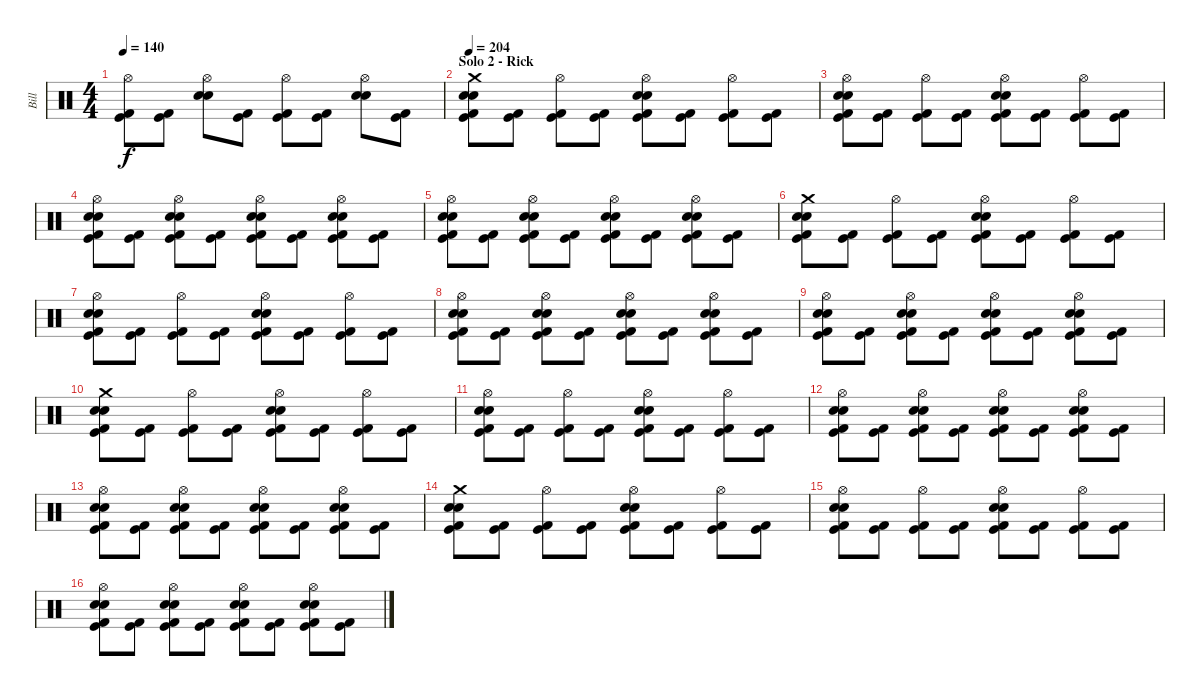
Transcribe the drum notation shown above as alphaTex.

\track ("Bill" "Bill") {instrument percussion}
\staff {score}
\articulation defaults
\ts (4 4)
\tempo 140
\clef neutral
\ks c
("Hi-Hat (open)" "Kick (hit) 2" "Kick (hit)").8{dy f} ("Kick (hit) 2" "Kick (hit)").8 ("Hi-Hat (open)" "Snare (hit) 2" "Electric Snare (hit)").8 ("Kick (hit)" "Kick (hit) 2").8 ("Hi-Hat (open)" "Kick (hit)" "Kick (hit) 2").8 ("Kick (hit)" "Kick (hit) 2").8 ("Hi-Hat (open)" "Snare (hit) 2" "Electric Snare (hit)").8 ("Kick (hit)" "Kick (hit) 2").8 |
\section ("" "Solo 2 - Rick")
\tempo 204
("Crash medium (hit)" "Snare (hit) 2" "Electric Snare (hit)" "Kick (hit)" "Kick (hit) 2").8 ("Kick (hit)" "Kick (hit) 2").8 ("Hi-Hat (open)" "Kick (hit)" "Kick (hit) 2").8 ("Kick (hit)" "Kick (hit) 2").8 ("Hi-Hat (open)" "Snare (hit) 2" "Electric Snare (hit)" "Kick (hit)" "Kick (hit) 2").8 ("Kick (hit)" "Kick (hit) 2").8 ("Hi-Hat (open)" "Kick (hit)" "Kick (hit) 2").8 ("Kick (hit)" "Kick (hit) 2").8 |
("Hi-Hat (open)" "Snare (hit) 2" "Electric Snare (hit)" "Kick (hit)" "Kick (hit) 2").8 ("Kick (hit)" "Kick (hit) 2").8 ("Hi-Hat (open)" "Kick (hit)" "Kick (hit) 2").8 ("Kick (hit)" "Kick (hit) 2").8 ("Hi-Hat (open)" "Snare (hit) 2" "Electric Snare (hit)" "Kick (hit)" "Kick (hit) 2").8 ("Kick (hit)" "Kick (hit) 2").8 ("Hi-Hat (open)" "Kick (hit)" "Kick (hit) 2").8 ("Kick (hit)" "Kick (hit) 2").8 |
("Hi-Hat (open)" "Snare (hit) 2" "Electric Snare (hit)" "Kick (hit)" "Kick (hit) 2").8 ("Kick (hit)" "Kick (hit) 2").8 ("Hi-Hat (open)" "Snare (hit) 2" "Electric Snare (hit)" "Kick (hit)" "Kick (hit) 2").8 ("Kick (hit)" "Kick (hit) 2").8 ("Hi-Hat (open)" "Snare (hit) 2" "Electric Snare (hit)" "Kick (hit)" "Kick (hit) 2").8 ("Kick (hit)" "Kick (hit) 2").8 ("Hi-Hat (open)" "Snare (hit) 2" "Electric Snare (hit)" "Kick (hit)" "Kick (hit) 2").8 ("Kick (hit)" "Kick (hit) 2").8 |
("Hi-Hat (open)" "Snare (hit) 2" "Electric Snare (hit)" "Kick (hit)" "Kick (hit) 2").8 ("Kick (hit)" "Kick (hit) 2").8 ("Hi-Hat (open)" "Snare (hit) 2" "Electric Snare (hit)" "Kick (hit)" "Kick (hit) 2").8 ("Kick (hit)" "Kick (hit) 2").8 ("Hi-Hat (open)" "Snare (hit) 2" "Electric Snare (hit)" "Kick (hit)" "Kick (hit) 2").8 ("Kick (hit)" "Kick (hit) 2").8 ("Hi-Hat (open)" "Snare (hit) 2" "Electric Snare (hit)" "Kick (hit)" "Kick (hit) 2").8 ("Kick (hit)" "Kick (hit) 2").8 |
("Crash medium (hit)" "Snare (hit) 2" "Electric Snare (hit)" "Kick (hit)" "Kick (hit) 2").8 ("Kick (hit)" "Kick (hit) 2").8 ("Hi-Hat (open)" "Kick (hit)" "Kick (hit) 2").8 ("Kick (hit)" "Kick (hit) 2").8 ("Hi-Hat (open)" "Snare (hit) 2" "Electric Snare (hit)" "Kick (hit)" "Kick (hit) 2").8 ("Kick (hit)" "Kick (hit) 2").8 ("Hi-Hat (open)" "Kick (hit)" "Kick (hit) 2").8 ("Kick (hit)" "Kick (hit) 2").8 |
("Hi-Hat (open)" "Snare (hit) 2" "Electric Snare (hit)" "Kick (hit)" "Kick (hit) 2").8 ("Kick (hit)" "Kick (hit) 2").8 ("Hi-Hat (open)" "Kick (hit)" "Kick (hit) 2").8 ("Kick (hit)" "Kick (hit) 2").8 ("Hi-Hat (open)" "Snare (hit) 2" "Electric Snare (hit)" "Kick (hit)" "Kick (hit) 2").8 ("Kick (hit)" "Kick (hit) 2").8 ("Hi-Hat (open)" "Kick (hit)" "Kick (hit) 2").8 ("Kick (hit)" "Kick (hit) 2").8 |
("Hi-Hat (open)" "Snare (hit) 2" "Electric Snare (hit)" "Kick (hit)" "Kick (hit) 2").8 ("Kick (hit)" "Kick (hit) 2").8 ("Hi-Hat (open)" "Snare (hit) 2" "Electric Snare (hit)" "Kick (hit)" "Kick (hit) 2").8 ("Kick (hit)" "Kick (hit) 2").8 ("Hi-Hat (open)" "Snare (hit) 2" "Electric Snare (hit)" "Kick (hit)" "Kick (hit) 2").8 ("Kick (hit)" "Kick (hit) 2").8 ("Hi-Hat (open)" "Snare (hit) 2" "Electric Snare (hit)" "Kick (hit)" "Kick (hit) 2").8 ("Kick (hit)" "Kick (hit) 2").8 |
("Hi-Hat (open)" "Snare (hit) 2" "Electric Snare (hit)" "Kick (hit)" "Kick (hit) 2").8 ("Kick (hit)" "Kick (hit) 2").8 ("Hi-Hat (open)" "Snare (hit) 2" "Electric Snare (hit)" "Kick (hit)" "Kick (hit) 2").8 ("Kick (hit)" "Kick (hit) 2").8 ("Hi-Hat (open)" "Snare (hit) 2" "Electric Snare (hit)" "Kick (hit)" "Kick (hit) 2").8 ("Kick (hit)" "Kick (hit) 2").8 ("Hi-Hat (open)" "Snare (hit) 2" "Electric Snare (hit)" "Kick (hit)" "Kick (hit) 2").8 ("Kick (hit)" "Kick (hit) 2").8 |
("Crash medium (hit)" "Snare (hit) 2" "Electric Snare (hit)" "Kick (hit)" "Kick (hit) 2").8 ("Kick (hit)" "Kick (hit) 2").8 ("Hi-Hat (open)" "Kick (hit)" "Kick (hit) 2").8 ("Kick (hit)" "Kick (hit) 2").8 ("Hi-Hat (open)" "Snare (hit) 2" "Electric Snare (hit)" "Kick (hit)" "Kick (hit) 2").8 ("Kick (hit)" "Kick (hit) 2").8 ("Hi-Hat (open)" "Kick (hit)" "Kick (hit) 2").8 ("Kick (hit)" "Kick (hit) 2").8 |
("Hi-Hat (open)" "Snare (hit) 2" "Electric Snare (hit)" "Kick (hit)" "Kick (hit) 2").8 ("Kick (hit)" "Kick (hit) 2").8 ("Hi-Hat (open)" "Kick (hit)" "Kick (hit) 2").8 ("Kick (hit)" "Kick (hit) 2").8 ("Hi-Hat (open)" "Snare (hit) 2" "Electric Snare (hit)" "Kick (hit)" "Kick (hit) 2").8 ("Kick (hit)" "Kick (hit) 2").8 ("Hi-Hat (open)" "Kick (hit)" "Kick (hit) 2").8 ("Kick (hit)" "Kick (hit) 2").8 |
("Hi-Hat (open)" "Snare (hit) 2" "Electric Snare (hit)" "Kick (hit)" "Kick (hit) 2").8 ("Kick (hit)" "Kick (hit) 2").8 ("Hi-Hat (open)" "Snare (hit) 2" "Electric Snare (hit)" "Kick (hit)" "Kick (hit) 2").8 ("Kick (hit)" "Kick (hit) 2").8 ("Hi-Hat (open)" "Snare (hit) 2" "Electric Snare (hit)" "Kick (hit)" "Kick (hit) 2").8 ("Kick (hit)" "Kick (hit) 2").8 ("Hi-Hat (open)" "Snare (hit) 2" "Electric Snare (hit)" "Kick (hit)" "Kick (hit) 2").8 ("Kick (hit)" "Kick (hit) 2").8 |
("Hi-Hat (open)" "Snare (hit) 2" "Electric Snare (hit)" "Kick (hit)" "Kick (hit) 2").8 ("Kick (hit)" "Kick (hit) 2").8 ("Hi-Hat (open)" "Snare (hit) 2" "Electric Snare (hit)" "Kick (hit)" "Kick (hit) 2").8 ("Kick (hit)" "Kick (hit) 2").8 ("Hi-Hat (open)" "Snare (hit) 2" "Electric Snare (hit)" "Kick (hit)" "Kick (hit) 2").8 ("Kick (hit)" "Kick (hit) 2").8 ("Hi-Hat (open)" "Snare (hit) 2" "Electric Snare (hit)" "Kick (hit)" "Kick (hit) 2").8 ("Kick (hit)" "Kick (hit) 2").8 |
("Crash medium (hit)" "Snare (hit) 2" "Electric Snare (hit)" "Kick (hit)" "Kick (hit) 2").8 ("Kick (hit)" "Kick (hit) 2").8 ("Hi-Hat (open)" "Kick (hit)" "Kick (hit) 2").8 ("Kick (hit)" "Kick (hit) 2").8 ("Hi-Hat (open)" "Snare (hit) 2" "Electric Snare (hit)" "Kick (hit)" "Kick (hit) 2").8 ("Kick (hit)" "Kick (hit) 2").8 ("Hi-Hat (open)" "Kick (hit)" "Kick (hit) 2").8 ("Kick (hit)" "Kick (hit) 2").8 |
("Hi-Hat (open)" "Snare (hit) 2" "Electric Snare (hit)" "Kick (hit)" "Kick (hit) 2").8 ("Kick (hit)" "Kick (hit) 2").8 ("Hi-Hat (open)" "Kick (hit)" "Kick (hit) 2").8 ("Kick (hit)" "Kick (hit) 2").8 ("Hi-Hat (open)" "Snare (hit) 2" "Electric Snare (hit)" "Kick (hit)" "Kick (hit) 2").8 ("Kick (hit)" "Kick (hit) 2").8 ("Hi-Hat (open)" "Kick (hit)" "Kick (hit) 2").8 ("Kick (hit)" "Kick (hit) 2").8 |
("Hi-Hat (open)" "Snare (hit) 2" "Electric Snare (hit)" "Kick (hit)" "Kick (hit) 2").8 ("Kick (hit)" "Kick (hit) 2").8 ("Hi-Hat (open)" "Snare (hit) 2" "Electric Snare (hit)" "Kick (hit)" "Kick (hit) 2").8 ("Kick (hit)" "Kick (hit) 2").8 ("Hi-Hat (open)" "Snare (hit) 2" "Electric Snare (hit)" "Kick (hit)" "Kick (hit) 2").8 ("Kick (hit)" "Kick (hit) 2").8 ("Hi-Hat (open)" "Snare (hit) 2" "Electric Snare (hit)" "Kick (hit)" "Kick (hit) 2").8 ("Kick (hit)" "Kick (hit) 2").8
